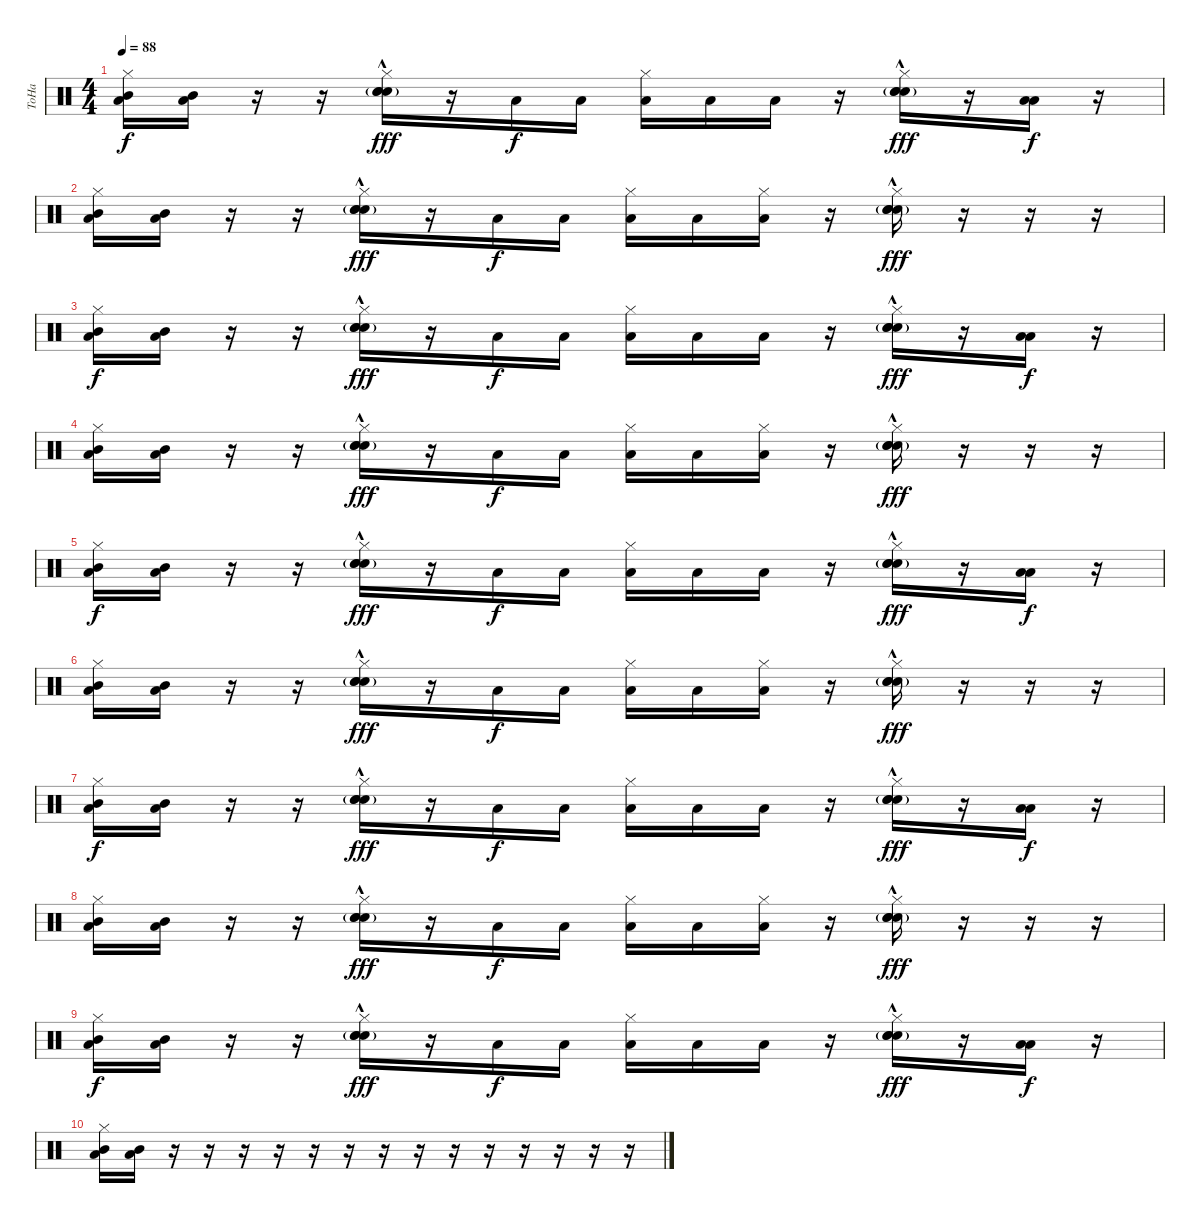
\track ("ToHa" "ToHa") {instrument percussion}
\staff {score}
\articulation defaults
\ts (4 4)
\tempo 88
\clef neutral
\ks c
("Hi-Hat (closed)" "Mid Tom (hit)" "Low Floor Tom (hit)").16{dy f} ("Mid Tom (hit)" "Low Floor Tom (hit)").16 r.16 r.16 ("Hi-Hat (closed)" "Hand Clap (hit)"{g} "Snare (hit) 2"{hac} "Electric Snare (hit)"{hac}).16{dy fff} r.16 "Low Floor Tom (hit)".16{dy f} "Low Floor Tom (hit)".16 ("Hi-Hat (closed)" "Low Tom (hit)").16 "Low Floor Tom (hit)".16 "Low Floor Tom (hit)".16 r.16 ("Hi-Hat (closed)" "Hand Clap (hit)"{g} "Snare (hit) 2"{hac} "Electric Snare (hit)"{hac}).16{dy fff} r.16 ("Low Tom (hit)" "Low Floor Tom (hit)").16{dy f} r.16 |
("Hi-Hat (closed)" "Mid Tom (hit)" "Low Floor Tom (hit)").16 ("Mid Tom (hit)" "Low Floor Tom (hit)").16 r.16 r.16 ("Hi-Hat (closed)" "Hand Clap (hit)"{g} "Snare (hit) 2"{hac} "Electric Snare (hit)"{hac}).16{dy fff} r.16 "Low Floor Tom (hit)".16{dy f} "Low Floor Tom (hit)".16 ("Hi-Hat (closed)" "Low Tom (hit)").16 "Low Floor Tom (hit)".16 ("Hi-Hat (closed)" "Low Floor Tom (hit)").16 r.16 ("Hi-Hat (closed)" "Hand Clap (hit)"{g} "Snare (hit) 2"{hac} "Electric Snare (hit)"{hac}).16{dy fff} r.16 r.16 r.16 |
("Hi-Hat (closed)" "Mid Tom (hit)" "Low Floor Tom (hit)").16{dy f} ("Mid Tom (hit)" "Low Floor Tom (hit)").16 r.16 r.16 ("Hi-Hat (closed)" "Hand Clap (hit)"{g} "Snare (hit) 2"{hac} "Electric Snare (hit)"{hac}).16{dy fff} r.16 "Low Floor Tom (hit)".16{dy f} "Low Floor Tom (hit)".16 ("Hi-Hat (closed)" "Low Tom (hit)").16 "Low Floor Tom (hit)".16 "Low Floor Tom (hit)".16 r.16 ("Hi-Hat (closed)" "Hand Clap (hit)"{g} "Snare (hit) 2"{hac} "Electric Snare (hit)"{hac}).16{dy fff} r.16 ("Low Tom (hit)" "Low Floor Tom (hit)").16{dy f} r.16 |
("Hi-Hat (closed)" "Mid Tom (hit)" "Low Floor Tom (hit)").16 ("Mid Tom (hit)" "Low Floor Tom (hit)").16 r.16 r.16 ("Hi-Hat (closed)" "Hand Clap (hit)"{g} "Snare (hit) 2"{hac} "Electric Snare (hit)"{hac}).16{dy fff} r.16 "Low Floor Tom (hit)".16{dy f} "Low Floor Tom (hit)".16 ("Hi-Hat (closed)" "Low Tom (hit)").16 "Low Floor Tom (hit)".16 ("Hi-Hat (closed)" "Low Floor Tom (hit)").16 r.16 ("Hi-Hat (closed)" "Hand Clap (hit)"{g} "Snare (hit) 2"{hac} "Electric Snare (hit)"{hac}).16{dy fff} r.16 r.16 r.16 |
("Hi-Hat (closed)" "Mid Tom (hit)" "Low Floor Tom (hit)").16{dy f} ("Mid Tom (hit)" "Low Floor Tom (hit)").16 r.16 r.16 ("Hi-Hat (closed)" "Hand Clap (hit)"{g} "Snare (hit) 2"{hac} "Electric Snare (hit)"{hac}).16{dy fff} r.16 "Low Floor Tom (hit)".16{dy f} "Low Floor Tom (hit)".16 ("Hi-Hat (closed)" "Low Tom (hit)").16 "Low Floor Tom (hit)".16 "Low Floor Tom (hit)".16 r.16 ("Hi-Hat (closed)" "Hand Clap (hit)"{g} "Snare (hit) 2"{hac} "Electric Snare (hit)"{hac}).16{dy fff} r.16 ("Low Tom (hit)" "Low Floor Tom (hit)").16{dy f} r.16 |
("Hi-Hat (closed)" "Mid Tom (hit)" "Low Floor Tom (hit)").16 ("Mid Tom (hit)" "Low Floor Tom (hit)").16 r.16 r.16 ("Hi-Hat (closed)" "Hand Clap (hit)"{g} "Snare (hit) 2"{hac} "Electric Snare (hit)"{hac}).16{dy fff} r.16 "Low Floor Tom (hit)".16{dy f} "Low Floor Tom (hit)".16 ("Hi-Hat (closed)" "Low Tom (hit)").16 "Low Floor Tom (hit)".16 ("Hi-Hat (closed)" "Low Floor Tom (hit)").16 r.16 ("Hi-Hat (closed)" "Hand Clap (hit)"{g} "Snare (hit) 2"{hac} "Electric Snare (hit)"{hac}).16{dy fff} r.16 r.16 r.16 |
("Hi-Hat (closed)" "Mid Tom (hit)" "Low Floor Tom (hit)").16{dy f} ("Mid Tom (hit)" "Low Floor Tom (hit)").16 r.16 r.16 ("Hi-Hat (closed)" "Hand Clap (hit)"{g} "Snare (hit) 2"{hac} "Electric Snare (hit)"{hac}).16{dy fff} r.16 "Low Floor Tom (hit)".16{dy f} "Low Floor Tom (hit)".16 ("Hi-Hat (closed)" "Low Tom (hit)").16 "Low Floor Tom (hit)".16 "Low Floor Tom (hit)".16 r.16 ("Hi-Hat (closed)" "Hand Clap (hit)"{g} "Snare (hit) 2"{hac} "Electric Snare (hit)"{hac}).16{dy fff} r.16 ("Low Tom (hit)" "Low Floor Tom (hit)").16{dy f} r.16 |
("Hi-Hat (closed)" "Mid Tom (hit)" "Low Floor Tom (hit)").16 ("Mid Tom (hit)" "Low Floor Tom (hit)").16 r.16 r.16 ("Hi-Hat (closed)" "Hand Clap (hit)"{g} "Snare (hit) 2"{hac} "Electric Snare (hit)"{hac}).16{dy fff} r.16 "Low Floor Tom (hit)".16{dy f} "Low Floor Tom (hit)".16 ("Hi-Hat (closed)" "Low Tom (hit)").16 "Low Floor Tom (hit)".16 ("Hi-Hat (closed)" "Low Floor Tom (hit)").16 r.16 ("Hi-Hat (closed)" "Hand Clap (hit)"{g} "Snare (hit) 2"{hac} "Electric Snare (hit)"{hac}).16{dy fff} r.16 r.16 r.16 |
("Hi-Hat (closed)" "Mid Tom (hit)" "Low Floor Tom (hit)").16{dy f} ("Mid Tom (hit)" "Low Floor Tom (hit)").16 r.16 r.16 ("Hi-Hat (closed)" "Hand Clap (hit)"{g} "Snare (hit) 2"{hac} "Electric Snare (hit)"{hac}).16{dy fff} r.16 "Low Floor Tom (hit)".16{dy f} "Low Floor Tom (hit)".16 ("Hi-Hat (closed)" "Low Tom (hit)").16 "Low Floor Tom (hit)".16 "Low Floor Tom (hit)".16 r.16 ("Hi-Hat (closed)" "Hand Clap (hit)"{g} "Snare (hit) 2"{hac} "Electric Snare (hit)"{hac}).16{dy fff} r.16 ("Low Tom (hit)" "Low Floor Tom (hit)").16{dy f} r.16 |
("Hi-Hat (closed)" "Mid Tom (hit)" "Low Floor Tom (hit)").16 ("Mid Tom (hit)" "Low Floor Tom (hit)").16 r.16 r.16 r.16 r.16 r.16 r.16 r.16 r.16 r.16 r.16 r.16 r.16 r.16 r.16
